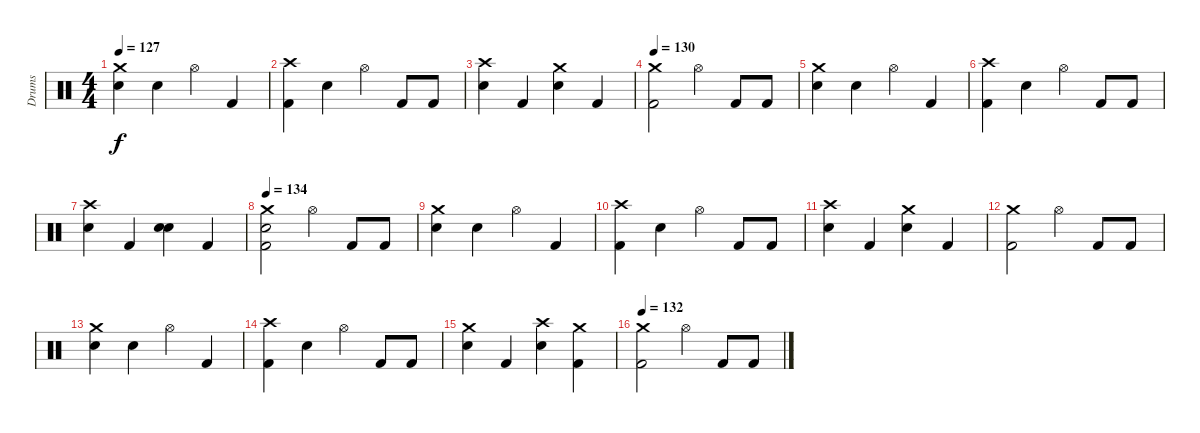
\track ("Drums" "Drums") {instrument percussion}
\staff {score}
\articulation defaults
\ts (4 4)
\tempo 127
\clef neutral
\ks c
("Crash medium (hit)" "Electric Snare (hit)").4{dy f} "Electric Snare (hit)".4 "Hi-Hat (open)".4 "Kick (hit) 2".4 |
("Crash high (hit)" "Kick (hit) 2").4 "Electric Snare (hit)".4 "Hi-Hat (open)".4 "Kick (hit) 2".8 "Kick (hit) 2".8 |
("Crash high (hit)" "Electric Snare (hit)").4 "Kick (hit) 2".4 ("Crash medium (hit)" "Electric Snare (hit)").4 "Kick (hit) 2".4 |
\tempo 130
("Crash medium (hit)" "Kick (hit) 2").2 "Hi-Hat (open)".4 "Kick (hit) 2".8 "Kick (hit) 2".8 |
("Crash medium (hit)" "Electric Snare (hit)").4 "Electric Snare (hit)".4 "Hi-Hat (open)".4 "Kick (hit) 2".4 |
("Crash high (hit)" "Kick (hit) 2").4 "Electric Snare (hit)".4 "Hi-Hat (open)".4 "Kick (hit) 2".8 "Kick (hit) 2".8 |
("Crash high (hit)" "Electric Snare (hit)").4 "Kick (hit) 2".4 ("Electric Snare (hit)" "Electric Snare (hit)").4{bu 60} "Kick (hit) 2".4 |
\tempo 134
("Crash medium (hit)" "Electric Snare (hit)" "Kick (hit) 2").2 "Hi-Hat (open)".4 "Kick (hit) 2".8 "Kick (hit) 2".8 |
("Crash medium (hit)" "Electric Snare (hit)").4 "Electric Snare (hit)".4 "Hi-Hat (open)".4 "Kick (hit) 2".4 |
("Crash high (hit)" "Kick (hit) 2").4 "Electric Snare (hit)".4 "Hi-Hat (open)".4 "Kick (hit) 2".8 "Kick (hit) 2".8 |
("Crash high (hit)" "Electric Snare (hit)").4 "Kick (hit) 2".4 ("Crash medium (hit)" "Electric Snare (hit)").4 "Kick (hit) 2".4 |
("Crash medium (hit)" "Kick (hit) 2").2 "Hi-Hat (open)".4 "Kick (hit) 2".8 "Kick (hit) 2".8 |
("Crash medium (hit)" "Electric Snare (hit)").4 "Electric Snare (hit)".4 "Hi-Hat (open)".4 "Kick (hit) 2".4 |
("Crash high (hit)" "Kick (hit) 2").4 "Electric Snare (hit)".4 "Hi-Hat (open)".4 "Kick (hit) 2".8 "Kick (hit) 2".8 |
("Crash medium (hit)" "Electric Snare (hit)").4 "Kick (hit) 2".4 ("Crash high (hit)" "Electric Snare (hit)").4 ("Crash medium (hit)" "Kick (hit) 2").4 |
\tempo 132
("Crash medium (hit)" "Kick (hit) 2").2 "Hi-Hat (open)".4 "Kick (hit) 2".8 "Kick (hit) 2".8
